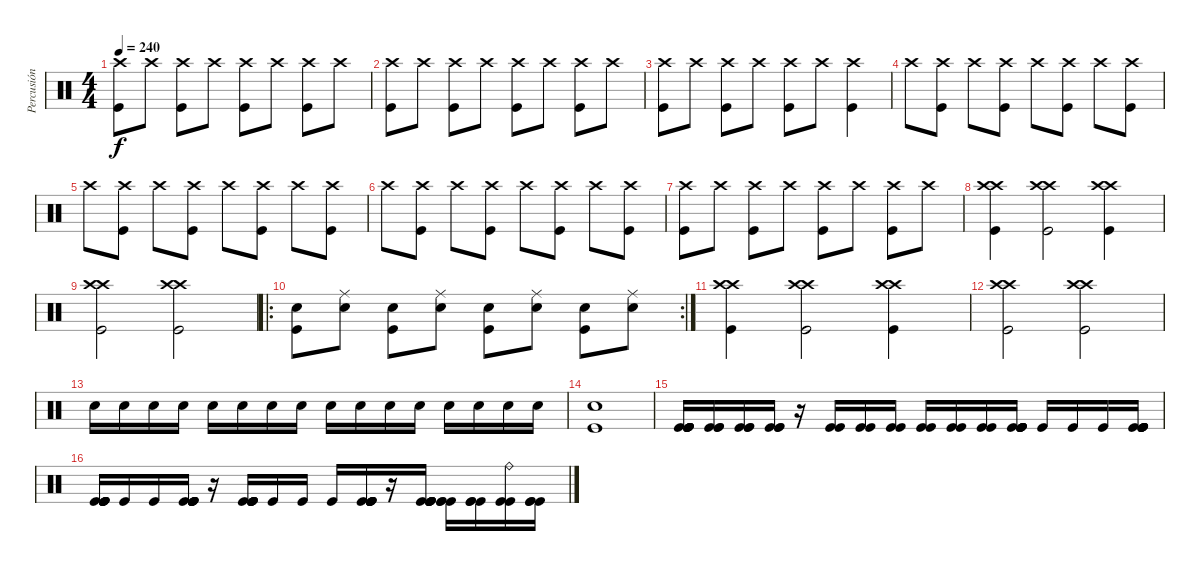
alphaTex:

\track ("Percusión" "Percusión") {instrument percussion}
\staff {score}
\articulation defaults
\ts (4 4)
\tempo 240
\clef neutral
\ks c
("Crash high (hit)" "Kick (hit)").8{dy f} "Crash high (hit)".8 ("Crash high (hit)" "Kick (hit)").8 "Crash high (hit)".8 ("Crash high (hit)" "Kick (hit)").8 "Crash high (hit)".8 ("Crash high (hit)" "Kick (hit)").8 "Crash high (hit)".8 |
("Crash high (hit)" "Kick (hit)").8 "Crash high (hit)".8 ("Crash high (hit)" "Kick (hit)").8 "Crash high (hit)".8 ("Crash high (hit)" "Kick (hit)").8 "Crash high (hit)".8 ("Crash high (hit)" "Kick (hit)").8 "Crash high (hit)".8 |
("Crash high (hit)" "Kick (hit)").8 "Crash high (hit)".8 ("Crash high (hit)" "Kick (hit)").8 "Crash high (hit)".8 ("Crash high (hit)" "Kick (hit)").8 "Crash high (hit)".8 ("Crash high (hit)" "Kick (hit)").4 |
"Crash high (hit)".8 ("Crash high (hit)" "Kick (hit)").8 "Crash high (hit)".8 ("Crash high (hit)" "Kick (hit)").8 "Crash high (hit)".8 ("Crash high (hit)" "Kick (hit)").8 "Crash high (hit)".8 ("Crash high (hit)" "Kick (hit)").8 |
"Crash high (hit)".8 ("Crash high (hit)" "Kick (hit)").8 "Crash high (hit)".8 ("Crash high (hit)" "Kick (hit)").8 "Crash high (hit)".8 ("Crash high (hit)" "Kick (hit)").8 "Crash high (hit)".8 ("Crash high (hit)" "Kick (hit)").8 |
"Crash high (hit)".8 ("Crash high (hit)" "Kick (hit)").8 "Crash high (hit)".8 ("Crash high (hit)" "Kick (hit)").8 "Crash high (hit)".8 ("Crash high (hit)" "Kick (hit)").8 "Crash high (hit)".8 ("Crash high (hit)" "Kick (hit)").8 |
("Crash high (hit)" "Kick (hit)").8 "Crash high (hit)".8 ("Crash high (hit)" "Kick (hit)").8 "Crash high (hit)".8 ("Crash high (hit)" "Kick (hit)").8 "Crash high (hit)".8 ("Crash high (hit)" "Kick (hit)").8 "Crash high (hit)".8 |
("Crash high (hit)" "Crash high (hit)" "Kick (hit)").4 ("Crash high (hit)" "Crash high (hit)" "Kick (hit)").2 ("Crash high (hit)" "Crash high (hit)" "Kick (hit)").4 |
("Crash high (hit)" "Crash high (hit)" "Kick (hit)").2 ("Crash high (hit)" "Crash high (hit)" "Kick (hit)").2 |
\ro
\rc 2
("Electric Snare (hit)" "Kick (hit)").8 ("Ride (middle)" "Electric Snare (hit)").8 ("Electric Snare (hit)" "Kick (hit)").8 ("Ride (middle)" "Electric Snare (hit)").8 ("Electric Snare (hit)" "Kick (hit)").8 ("Ride (middle)" "Electric Snare (hit)").8 ("Electric Snare (hit)" "Kick (hit)").8 ("Ride (middle)" "Electric Snare (hit)").8 |
("Crash high (hit)" "Crash high (hit)" "Kick (hit)").4 ("Crash high (hit)" "Crash high (hit)" "Kick (hit)").2 ("Crash high (hit)" "Crash high (hit)" "Kick (hit)").4 |
("Crash high (hit)" "Crash high (hit)" "Kick (hit)").2 ("Crash high (hit)" "Crash high (hit)" "Kick (hit)").2 |
"Electric Snare (hit)".16 "Electric Snare (hit)".16 "Electric Snare (hit)".16 "Electric Snare (hit)".16 "Electric Snare (hit)".16 "Electric Snare (hit)".16 "Electric Snare (hit)".16 "Electric Snare (hit)".16 "Electric Snare (hit)".16 "Electric Snare (hit)".16 "Electric Snare (hit)".16 "Electric Snare (hit)".16 "Electric Snare (hit)".16 "Electric Snare (hit)".16 "Electric Snare (hit)".16 "Electric Snare (hit)".16 |
("Electric Snare (hit)" "Kick (hit)").1 |
("Kick (hit)" "Kick (hit)" "Kick (hit)" "Kick (hit)" "Kick (hit)" "Kick (hit)").16 ("Kick (hit)" "Kick (hit)" "Kick (hit)").16 ("Kick (hit)" "Kick (hit)" "Kick (hit)").16 ("Kick (hit)" "Kick (hit)" "Kick (hit)").16 r.16 ("Kick (hit)" "Kick (hit)").16 ("Kick (hit)" "Kick (hit)").16 ("Kick (hit)" "Kick (hit)").16 ("Kick (hit)" "Kick (hit)").16 ("Kick (hit)" "Kick (hit)").16 ("Kick (hit)" "Kick (hit)").16 ("Kick (hit)" "Kick (hit)" "Kick (hit)" "Kick (hit)" "Kick (hit)" "Kick (hit)").16 "Kick (hit)".16 "Kick (hit)".16 "Kick (hit)".16 ("Kick (hit)" "Kick (hit)" "Kick (hit)" "Kick (hit)" "Kick (hit)" "Kick (hit)").16 |
("Kick (hit)" "Kick (hit)" "Kick (hit)" "Kick (hit)" "Kick (hit)" "Kick (hit)").16 "Kick (hit)".16 "Kick (hit)".16 ("Kick (hit)" "Kick (hit)" "Kick (hit)" "Kick (hit)" "Kick (hit)" "Kick (hit)").16 r.16 ("Kick (hit)" "Kick (hit)" "Kick (hit)" "Kick (hit)" "Kick (hit)" "Kick (hit)").16 "Kick (hit)".16 "Kick (hit)".16 "Kick (hit)".16 ("Kick (hit)" "Kick (hit)" "Kick (hit)" "Kick (hit)" "Kick (hit)" "Kick (hit)").16 r.16 ("Kick (hit)" "Kick (hit)" "Kick (hit)" "Kick (hit)" "Kick (hit)" "Kick (hit)").16 ("Kick (hit)" "Kick (hit)" "Kick (hit)").16 ("Kick (hit)" "Kick (hit)" "Kick (hit)").16 ("Ride (bell)" "Kick (hit)" "Kick (hit)").16 ("Kick (hit)" "Kick (hit)" "Kick (hit)").16
